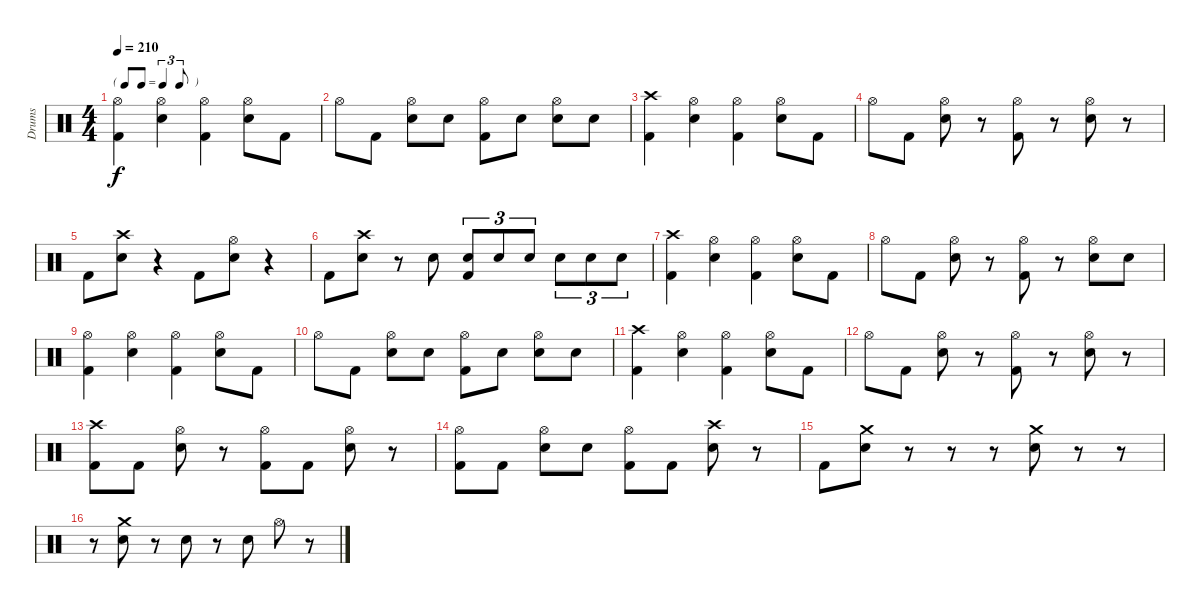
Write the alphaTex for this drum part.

\track ("Drums" "Drums") {instrument percussion}
\staff {score}
\articulation defaults
\ts (4 4)
\tf triplet8th
\tempo 210
\clef neutral
\ks c
("Hi-Hat (open)" "Kick (hit) 2").4{dy f} ("Hi-Hat (open)" "Snare (hit) 2").4 ("Hi-Hat (open)" "Kick (hit) 2").4 ("Hi-Hat (open)" "Snare (hit) 2").8 "Kick (hit) 2".8 |
"Hi-Hat (open)".8 "Kick (hit) 2".8 ("Hi-Hat (open)" "Snare (hit) 2").8 "Snare (hit) 2".8 ("Hi-Hat (open)" "Kick (hit) 2").8 "Snare (hit) 2".8 ("Hi-Hat (open)" "Snare (hit) 2").8 "Snare (hit) 2".8 |
("Crash high (hit)" "Kick (hit) 2").4 ("Hi-Hat (open)" "Snare (hit) 2").4 ("Hi-Hat (open)" "Kick (hit) 2").4 ("Hi-Hat (open)" "Snare (hit) 2").8 "Kick (hit) 2".8 |
"Hi-Hat (open)".8 "Kick (hit) 2".8 ("Hi-Hat (open)" "Snare (hit) 2").8 r.8 ("Hi-Hat (open)" "Kick (hit) 2").8 r.8 ("Hi-Hat (open)" "Snare (hit) 2").8 r.8 |
"Kick (hit) 2".8 ("Crash high (hit)" "Snare (hit) 2").8 r.4 "Kick (hit) 2".8 ("Hi-Hat (open)" "Snare (hit) 2").8 r.4 |
"Kick (hit) 2".8 ("Crash high (hit)" "Snare (hit) 2").8 r.8 "Snare (hit) 2".8 ("Snare (hit) 2" "Kick (hit) 2").8{tu (3 2)} "Snare (hit) 2".8{tu (3 2)} "Snare (hit) 2".8{tu (3 2)} "Snare (hit) 2".8{tu (3 2)} "Snare (hit) 2".8{tu (3 2)} "Snare (hit) 2".8{tu (3 2)} |
("Crash high (hit)" "Kick (hit) 2").4 ("Hi-Hat (open)" "Snare (hit) 2").4 ("Hi-Hat (open)" "Kick (hit) 2").4 ("Hi-Hat (open)" "Snare (hit) 2").8 "Kick (hit) 2".8 |
"Hi-Hat (open)".8 "Kick (hit) 2".8 ("Hi-Hat (open)" "Snare (hit) 2").8 r.8 ("Hi-Hat (open)" "Kick (hit) 2").8 r.8 ("Hi-Hat (open)" "Snare (hit) 2").8 "Snare (hit) 2".8 |
("Hi-Hat (open)" "Kick (hit) 2").4 ("Hi-Hat (open)" "Snare (hit) 2").4 ("Hi-Hat (open)" "Kick (hit) 2").4 ("Hi-Hat (open)" "Snare (hit) 2").8 "Kick (hit) 2".8 |
"Hi-Hat (open)".8 "Kick (hit) 2".8 ("Hi-Hat (open)" "Snare (hit) 2").8 "Snare (hit) 2".8 ("Hi-Hat (open)" "Kick (hit) 2").8 "Snare (hit) 2".8 ("Hi-Hat (open)" "Snare (hit) 2").8 "Snare (hit) 2".8 |
("Crash high (hit)" "Kick (hit) 2").4 ("Hi-Hat (open)" "Snare (hit) 2").4 ("Hi-Hat (open)" "Kick (hit) 2").4 ("Hi-Hat (open)" "Snare (hit) 2").8 "Kick (hit) 2".8 |
"Hi-Hat (open)".8 "Kick (hit) 2".8 ("Hi-Hat (open)" "Snare (hit) 2").8 r.8 ("Hi-Hat (open)" "Kick (hit) 2").8 r.8 ("Hi-Hat (open)" "Snare (hit) 2").8 r.8 |
("Crash high (hit)" "Kick (hit) 2").8 "Kick (hit) 2".8 ("Hi-Hat (open)" "Snare (hit) 2").8 r.8 ("Hi-Hat (open)" "Kick (hit) 2").8 "Kick (hit) 2".8 ("Hi-Hat (open)" "Snare (hit) 2").8 r.8 |
("Hi-Hat (open)" "Kick (hit) 2").8 "Kick (hit) 2".8 ("Hi-Hat (open)" "Snare (hit) 2").8 "Snare (hit) 2".8 ("Hi-Hat (open)" "Kick (hit) 2").8 "Kick (hit) 2".8 ("Crash high (hit)" "Snare (hit) 2").8 r.8 |
"Kick (hit) 2".8 ("Crash medium (hit)" "Snare (hit) 2").8 r.8 r.8 r.8 ("Crash medium (hit)" "Snare (hit) 2").8 r.8 r.8 |
r.8 ("Crash medium (hit)" "Snare (hit) 2").8 r.8 "Snare (hit) 2".8 r.8 "Snare (hit) 2".8 "Hi-Hat (open)".8 r.8
